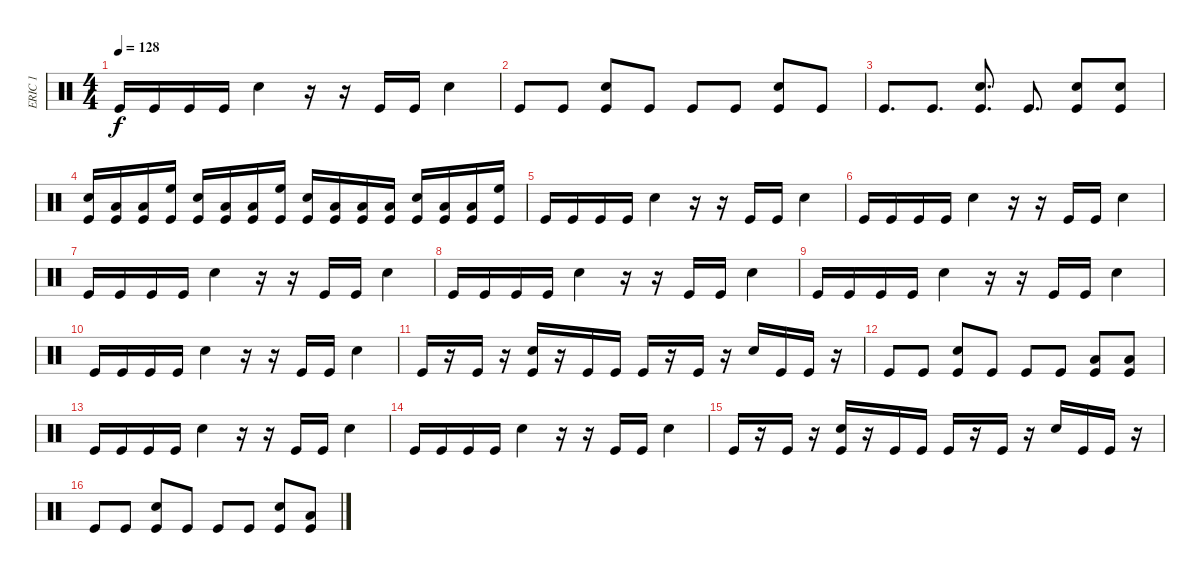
\track ("ERIC 1" "ERIC 1") {instrument percussion}
\staff {score}
\articulation defaults
\ts (4 4)
\tempo 128
\clef neutral
\ks c "Kick (hit)".16{dy f} "Kick (hit)".16 "Kick (hit)".16 "Kick (hit)".16 "Electric Snare (hit)".4
r.16 r.16 "Kick (hit)".16 "Kick (hit)".16 "Electric Snare (hit)".4 |
"Kick (hit)".8 "Kick (hit)".8 ("Electric Snare (hit)" "Kick (hit)").8 "Kick (hit)".8 "Kick (hit)".8 "Kick (hit)".8 ("Electric Snare (hit)" "Kick (hit)").8 "Kick (hit)".8 |
"Kick (hit)".8{d} "Kick (hit)".8{d} ("Electric Snare (hit)" "Kick (hit)").8{d} "Kick (hit)".8{d} ("Electric Snare (hit)" "Kick (hit)").8 ("Electric Snare (hit)" "Kick (hit)").8 |
("Electric Snare (hit)" "Kick (hit)").16 ("Low Floor Tom (hit)" "Kick (hit)").16 ("Low Tom (hit)" "Kick (hit)").16 ("High Floor Tom (hit)" "Kick (hit)").16 ("Electric Snare (hit)" "Kick (hit)").16 ("Low Floor Tom (hit)" "Kick (hit)").16 ("Low Tom (hit)" "Kick (hit)").16 ("High Floor Tom (hit)" "Kick (hit)").16 ("Electric Snare (hit)" "Kick (hit)").16 ("Low Floor Tom (hit)" "Kick (hit)").16 ("Low Tom (hit)" "Kick (hit)").16 ("Low Floor Tom (hit)" "Kick (hit)").16 ("Electric Snare (hit)" "Kick (hit)").16 ("Low Floor Tom (hit)" "Kick (hit)").16 ("Low Tom (hit)" "Kick (hit)").16 ("High Floor Tom (hit)" "Kick (hit)").16 |
"Kick (hit)".16 "Kick (hit)".16 "Kick (hit)".16 "Kick (hit)".16 "Electric Snare (hit)".4 r.16 r.16 "Kick (hit)".16 "Kick (hit)".16 "Electric Snare (hit)".4 |
"Kick (hit)".16 "Kick (hit)".16 "Kick (hit)".16 "Kick (hit)".16 "Electric Snare (hit)".4 r.16 r.16 "Kick (hit)".16 "Kick (hit)".16 "Electric Snare (hit)".4 |
"Kick (hit)".16 "Kick (hit)".16 "Kick (hit)".16 "Kick (hit)".16 "Electric Snare (hit)".4 r.16 r.16 "Kick (hit)".16 "Kick (hit)".16 "Electric Snare (hit)".4 |
"Kick (hit)".16 "Kick (hit)".16 "Kick (hit)".16 "Kick (hit)".16 "Electric Snare (hit)".4 r.16 r.16 "Kick (hit)".16 "Kick (hit)".16 "Electric Snare (hit)".4 |
"Kick (hit)".16 "Kick (hit)".16 "Kick (hit)".16 "Kick (hit)".16 "Electric Snare (hit)".4 r.16 r.16 "Kick (hit)".16 "Kick (hit)".16 "Electric Snare (hit)".4 |
"Kick (hit)".16 "Kick (hit)".16 "Kick (hit)".16 "Kick (hit)".16 "Electric Snare (hit)".4 r.16 r.16 "Kick (hit)".16 "Kick (hit)".16 "Electric Snare (hit)".4 |
"Kick (hit)".16 r.16 "Kick (hit)".16 r.16 ("Electric Snare (hit)" "Kick (hit)").16 r.16 "Kick (hit)".16 "Kick (hit)".16 "Kick (hit)".16 r.16 "Kick (hit)".16 r.16 "Electric Snare (hit)".16 "Kick (hit)".16 "Kick (hit)".16 r.16 |
"Kick (hit)".8 "Kick (hit)".8 ("Electric Snare (hit)" "Kick (hit)").8 "Kick (hit)".8 "Kick (hit)".8 "Kick (hit)".8 ("Low Tom (hit)" "Kick (hit)").8 ("Low Floor Tom (hit)" "Kick (hit)").8 |
"Kick (hit)".16 "Kick (hit)".16 "Kick (hit)".16 "Kick (hit)".16 "Electric Snare (hit)".4 r.16 r.16 "Kick (hit)".16 "Kick (hit)".16 "Electric Snare (hit)".4 |
"Kick (hit)".16 "Kick (hit)".16 "Kick (hit)".16 "Kick (hit)".16 "Electric Snare (hit)".4 r.16 r.16 "Kick (hit)".16 "Kick (hit)".16 "Electric Snare (hit)".4 |
"Kick (hit)".16 r.16 "Kick (hit)".16 r.16 ("Electric Snare (hit)" "Kick (hit)").16 r.16 "Kick (hit)".16 "Kick (hit)".16 "Kick (hit)".16 r.16 "Kick (hit)".16 r.16 "Electric Snare (hit)".16 "Kick (hit)".16 "Kick (hit)".16 r.16 |
"Kick (hit)".8 "Kick (hit)".8 ("Electric Snare (hit)" "Kick (hit)").8 "Kick (hit)".8 "Kick (hit)".8 "Kick (hit)".8 ("Electric Snare (hit)" "Kick (hit)").8 ("Low Tom (hit)" "Kick (hit)").8
